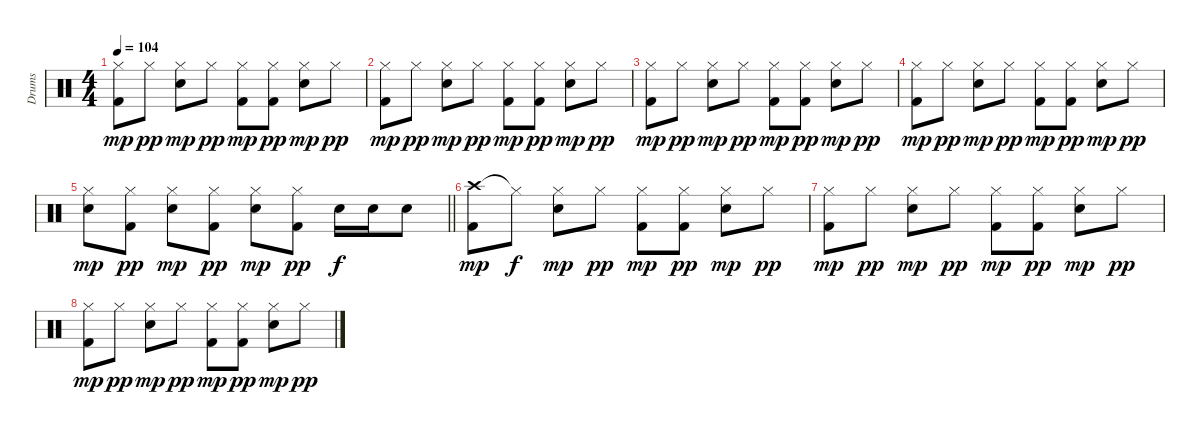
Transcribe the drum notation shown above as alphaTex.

\track ("Drums" "Drums") {instrument percussion}
\staff {score}
\articulation defaults
\ts (4 4)
\tempo 104
\clef neutral
\ks c
("Hi-Hat (closed)" "Kick (hit) 2").8{dy mp} "Hi-Hat (closed)".8{dy pp} ("Hi-Hat (closed)" "Electric Snare (hit)").8{dy mp} "Hi-Hat (closed)".8{dy pp} ("Hi-Hat (closed)" "Kick (hit) 2").8{dy mp} ("Hi-Hat (closed)" "Kick (hit) 2").8{dy pp} ("Hi-Hat (closed)" "Electric Snare (hit)").8{dy mp} "Hi-Hat (closed)".8{dy pp} |
("Hi-Hat (closed)" "Kick (hit) 2").8{dy mp} "Hi-Hat (closed)".8{dy pp} ("Hi-Hat (closed)" "Electric Snare (hit)").8{dy mp} "Hi-Hat (closed)".8{dy pp} ("Hi-Hat (closed)" "Kick (hit) 2").8{dy mp} ("Hi-Hat (closed)" "Kick (hit) 2").8{dy pp} ("Hi-Hat (closed)" "Electric Snare (hit)").8{dy mp} "Hi-Hat (closed)".8{dy pp} |
("Hi-Hat (closed)" "Kick (hit) 2").8{dy mp} "Hi-Hat (closed)".8{dy pp} ("Hi-Hat (closed)" "Electric Snare (hit)").8{dy mp} "Hi-Hat (closed)".8{dy pp} ("Hi-Hat (closed)" "Kick (hit) 2").8{dy mp} ("Hi-Hat (closed)" "Kick (hit) 2").8{dy pp} ("Hi-Hat (closed)" "Electric Snare (hit)").8{dy mp} "Hi-Hat (closed)".8{dy pp} |
("Hi-Hat (closed)" "Kick (hit) 2").8{dy mp} "Hi-Hat (closed)".8{dy pp} ("Hi-Hat (closed)" "Electric Snare (hit)").8{dy mp} "Hi-Hat (closed)".8{dy pp} ("Hi-Hat (closed)" "Kick (hit) 2").8{dy mp} ("Hi-Hat (closed)" "Kick (hit) 2").8{dy pp} ("Hi-Hat (closed)" "Electric Snare (hit)").8{dy mp} "Hi-Hat (closed)".8{dy pp} |
\barLineRight lightlight
("Hi-Hat (closed)" "Electric Snare (hit)").8{dy mp} ("Hi-Hat (closed)" "Kick (hit) 2").8{dy pp} ("Hi-Hat (closed)" "Electric Snare (hit)").8{dy mp} ("Hi-Hat (closed)" "Kick (hit) 2").8{dy pp} ("Hi-Hat (closed)" "Electric Snare (hit)").8{dy mp} ("Hi-Hat (closed)" "Kick (hit) 2").8{dy pp} "Electric Snare (hit)".16{dy f} "Electric Snare (hit)".16 "Electric Snare (hit)".8 |
("Crash high (hit)" "Kick (hit) 2").8{dy mp} "Hi-Hat (closed)"{t}.8{dy f} ("Hi-Hat (closed)" "Electric Snare (hit)").8{dy mp} "Hi-Hat (closed)".8{dy pp} ("Hi-Hat (closed)" "Kick (hit) 2").8{dy mp} ("Hi-Hat (closed)" "Kick (hit) 2").8{dy pp} ("Hi-Hat (closed)" "Electric Snare (hit)").8{dy mp} "Hi-Hat (closed)".8{dy pp} |
("Hi-Hat (closed)" "Kick (hit) 2").8{dy mp} "Hi-Hat (closed)".8{dy pp} ("Hi-Hat (closed)" "Electric Snare (hit)").8{dy mp} "Hi-Hat (closed)".8{dy pp} ("Hi-Hat (closed)" "Kick (hit) 2").8{dy mp} ("Hi-Hat (closed)" "Kick (hit) 2").8{dy pp} ("Hi-Hat (closed)" "Electric Snare (hit)").8{dy mp} "Hi-Hat (closed)".8{dy pp} |
("Hi-Hat (closed)" "Kick (hit) 2").8{dy mp} "Hi-Hat (closed)".8{dy pp} ("Hi-Hat (closed)" "Electric Snare (hit)").8{dy mp} "Hi-Hat (closed)".8{dy pp} ("Hi-Hat (closed)" "Kick (hit) 2").8{dy mp} ("Hi-Hat (closed)" "Kick (hit) 2").8{dy pp} ("Hi-Hat (closed)" "Electric Snare (hit)").8{dy mp} "Hi-Hat (closed)".8{dy pp}
